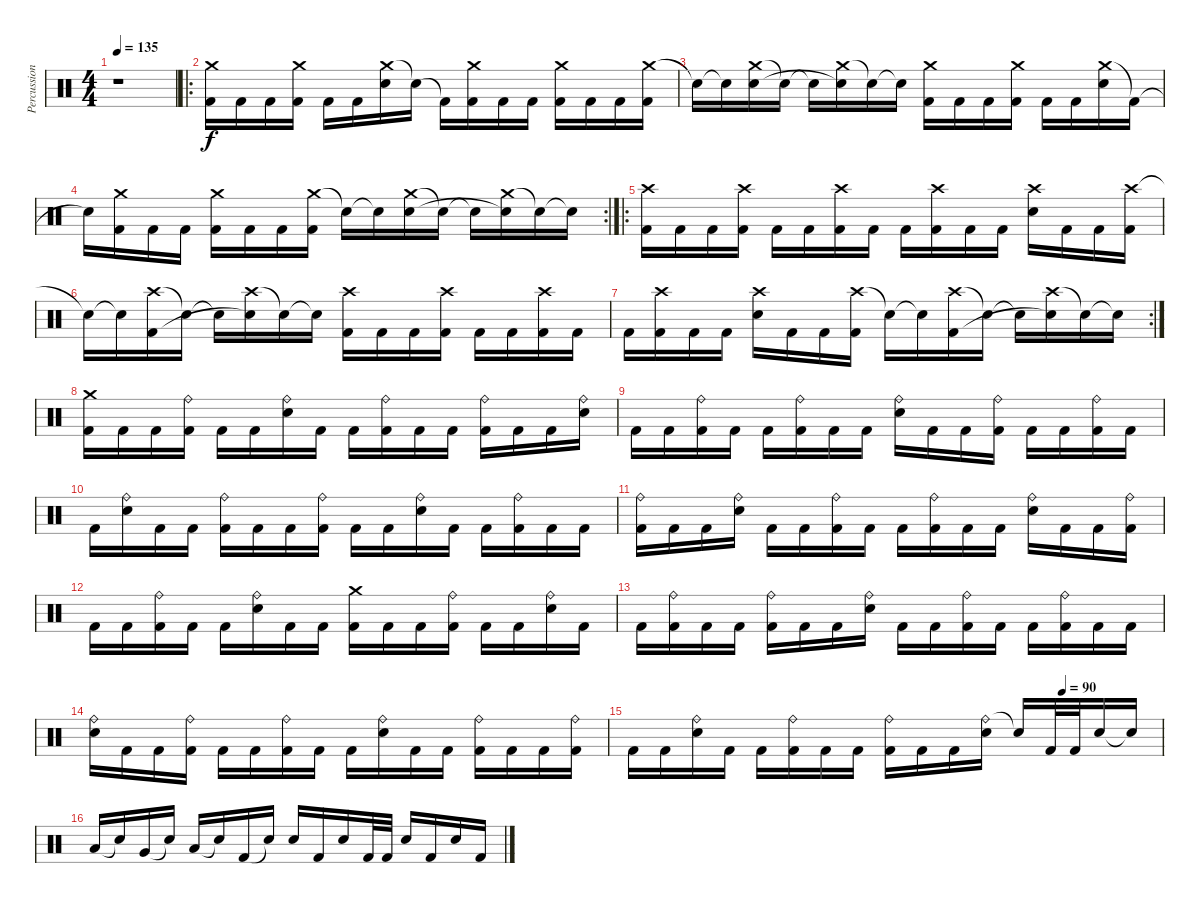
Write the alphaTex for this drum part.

\track ("Percussion" "Percussion") {instrument percussion}
\staff {score}
\articulation defaults
\ts (4 4)
\tempo 135
\clef neutral
\ks c
r.1{dy f} |
\ro
("Crash medium (hit)" "Kick (hit) 2").16 "Kick (hit) 2".16 "Kick (hit) 2".16 ("Crash medium (hit)" "Kick (hit) 2").16 "Kick (hit) 2".16 "Kick (hit) 2".16 ("Crash medium (hit)" "Electric Snare (hit)").16 "Snare (hit)"{t}.16 "Kick (hit) 2"{t}.16 ("Crash medium (hit)" "Kick (hit) 2").16 "Kick (hit) 2".16 "Kick (hit) 2".16 ("Crash medium (hit)" "Kick (hit) 2").16 "Kick (hit) 2".16 "Kick (hit) 2".16 ("Crash medium (hit)" "Kick (hit) 2").16 |
"Electric Snare (hit)"{t}.16 "Electric Snare (hit)"{t}.16 ("Crash medium (hit)" "Electric Snare (hit)").16 "Snare (hit)"{t}.16 "Snare (hit)"{t}.16 ("Crash medium (hit)" "Snare (hit)"{t}).16 "Snare (hit)"{t}.16 "Snare (hit)"{t}.16 ("Crash medium (hit)" "Kick (hit) 2").16 "Kick (hit) 2".16 "Kick (hit) 2".16 ("Crash medium (hit)" "Kick (hit) 2").16 "Kick (hit) 2".16 "Kick (hit) 2".16 ("Crash medium (hit)" "Electric Snare (hit)").16 "Kick (hit) 2"{t}.16 |
\rc 2 "Snare (hit)"{t}.16
("Crash medium (hit)" "Kick (hit) 2").16 "Kick (hit) 2".16 "Kick (hit) 2".16 ("Crash medium (hit)" "Kick (hit) 2").16 "Kick (hit) 2".16 "Kick (hit) 2".16 ("Crash medium (hit)" "Kick (hit) 2").16 "Snare (hit)"{t}.16 "Snare (hit)"{t}.16 ("Crash medium (hit)" "Electric Snare (hit)").16 "Snare (hit)"{t}.16 "Snare (hit)"{t}.16 ("Crash medium (hit)" "Snare (hit)"{t}).16 "Snare (hit)"{t}.16 "Snare (hit)"{t}.16 |
\ro
("Crash high (hit)" "Kick (hit) 2").16 "Kick (hit) 2".16 "Kick (hit) 2".16 ("Crash high (hit)" "Kick (hit) 2").16 "Kick (hit) 2".16 "Kick (hit) 2".16 ("Crash high (hit)" "Kick (hit) 2").16 "Kick (hit) 2".16 "Kick (hit) 2".16 ("Crash high (hit)" "Kick (hit) 2").16 "Kick (hit) 2".16 "Kick (hit) 2".16 ("Crash high (hit)" "Electric Snare (hit)").16 "Kick (hit) 2".16 "Kick (hit) 2".16 ("Crash high (hit)" "Kick (hit) 2").16 |
"Electric Snare (hit)"{t}.16 "Electric Snare (hit)"{t}.16 ("Crash high (hit)" "Kick (hit) 2").16 "Snare (hit)"{t}.16 "Snare (hit)"{t}.16 ("Crash high (hit)" "Snare (hit)"{t}).16 "Snare (hit)"{t}.16 "Snare (hit)"{t}.16 ("Crash high (hit)" "Kick (hit) 2").16 "Kick (hit) 2".16 "Kick (hit) 2".16 ("Crash high (hit)" "Kick (hit) 2").16 "Kick (hit) 2".16 "Kick (hit) 2".16 ("Crash high (hit)" "Kick (hit) 2").16 "Kick (hit) 2".16 |
\rc 2 "Kick (hit) 2".16
("Crash high (hit)" "Kick (hit) 2").16 "Kick (hit) 2".16 "Kick (hit) 2".16 ("Crash high (hit)" "Electric Snare (hit)").16 "Kick (hit) 2".16 "Kick (hit) 2".16 ("Crash high (hit)" "Kick (hit) 2").16 "Snare (hit)"{t}.16 "Snare (hit)"{t}.16 ("Crash high (hit)" "Kick (hit) 2").16 "Snare (hit)"{t}.16 "Snare (hit)"{t}.16 ("Crash high (hit)" "Snare (hit)"{t}).16 "Snare (hit)"{t}.16 "Snare (hit)"{t}.16 |
("Crash medium (hit)" "Kick (hit) 2").16 "Kick (hit) 2".16 "Kick (hit) 2".16 ("Ride (bell)" "Kick (hit) 2").16 "Kick (hit) 2".16 "Kick (hit) 2".16 ("Ride (bell)" "Electric Snare (hit)").16 "Kick (hit) 2".16 "Kick (hit) 2".16 ("Ride (bell)" "Kick (hit) 2").16 "Kick (hit) 2".16 "Kick (hit) 2".16 ("Ride (bell)" "Kick (hit) 2").16 "Kick (hit) 2".16 "Kick (hit) 2".16 ("Ride (bell)" "Electric Snare (hit)").16 |
"Kick (hit) 2".16 "Kick (hit) 2".16 ("Ride (bell)" "Kick (hit) 2").16 "Kick (hit) 2".16 "Kick (hit) 2".16 ("Ride (bell)" "Kick (hit) 2").16 "Kick (hit) 2".16 "Kick (hit) 2".16 ("Ride (bell)" "Electric Snare (hit)").16 "Kick (hit) 2".16 "Kick (hit) 2".16 ("Ride (bell)" "Kick (hit) 2").16 "Kick (hit) 2".16 "Kick (hit) 2".16 ("Ride (bell)" "Kick (hit) 2").16 "Kick (hit) 2".16 |
"Kick (hit) 2".16 ("Ride (bell)" "Electric Snare (hit)").16 "Kick (hit) 2".16 "Kick (hit) 2".16 ("Ride (bell)" "Kick (hit) 2").16 "Kick (hit) 2".16 "Kick (hit) 2".16 ("Ride (bell)" "Kick (hit) 2").16 "Kick (hit) 2".16 "Kick (hit) 2".16 ("Ride (bell)" "Electric Snare (hit)").16 "Kick (hit) 2".16 "Kick (hit) 2".16 ("Ride (bell)" "Kick (hit) 2").16 "Kick (hit) 2".16 "Kick (hit) 2".16 |
("Ride (bell)" "Kick (hit) 2").16 "Kick (hit) 2".16 "Kick (hit) 2".16 ("Ride (bell)" "Electric Snare (hit)").16 "Kick (hit) 2".16 "Kick (hit) 2".16 ("Ride (bell)" "Kick (hit) 2").16 "Kick (hit) 2".16 "Kick (hit) 2".16 ("Ride (bell)" "Kick (hit) 2").16 "Kick (hit) 2".16 "Kick (hit) 2".16 ("Ride (bell)" "Electric Snare (hit)").16 "Kick (hit) 2".16 "Kick (hit) 2".16 ("Ride (bell)" "Kick (hit) 2").16 |
"Kick (hit) 2".16 "Kick (hit) 2".16 ("Ride (bell)" "Kick (hit) 2").16 "Kick (hit) 2".16 "Kick (hit) 2".16 ("Ride (bell)" "Electric Snare (hit)").16 "Kick (hit) 2".16 "Kick (hit) 2".16 ("Crash medium (hit)" "Kick (hit) 2").16 "Kick (hit) 2".16 "Kick (hit) 2".16 ("Ride (bell)" "Kick (hit) 2").16 "Kick (hit) 2".16 "Kick (hit) 2".16 ("Ride (bell)" "Electric Snare (hit)").16 "Kick (hit) 2".16 |
"Kick (hit) 2".16 ("Ride (bell)" "Kick (hit) 2").16 "Kick (hit) 2".16 "Kick (hit) 2".16 ("Ride (bell)" "Kick (hit) 2").16 "Kick (hit) 2".16 "Kick (hit) 2".16 ("Ride (bell)" "Electric Snare (hit)").16 "Kick (hit) 2".16 "Kick (hit) 2".16 ("Ride (bell)" "Kick (hit) 2").16 "Kick (hit) 2".16 "Kick (hit) 2".16 ("Ride (bell)" "Kick (hit) 2").16 "Kick (hit) 2".16 "Kick (hit) 2".16 |
("Ride (bell)" "Electric Snare (hit)").16 "Kick (hit) 2".16 "Kick (hit) 2".16 ("Ride (bell)" "Kick (hit) 2").16 "Kick (hit) 2".16 "Kick (hit) 2".16 ("Ride (bell)" "Kick (hit) 2").16 "Kick (hit) 2".16 "Kick (hit) 2".16 ("Ride (bell)" "Electric Snare (hit)").16 "Kick (hit) 2".16 "Kick (hit) 2".16 ("Ride (bell)" "Kick (hit) 2").16 "Kick (hit) 2".16 "Kick (hit) 2".16 ("Ride (bell)" "Kick (hit) 2").16 |
\tempo (90 0.8125)
"Kick (hit) 2".16 "Kick (hit) 2".16 ("Ride (bell)" "Electric Snare (hit)").16 "Kick (hit) 2".16 "Kick (hit) 2".16 ("Ride (bell)" "Kick (hit) 2").16 "Kick (hit) 2".16 "Kick (hit) 2".16 ("Ride (bell)" "Kick (hit) 2").16 "Kick (hit) 2".16 "Kick (hit) 2".16 ("Ride (bell)" "Electric Snare (hit)").16 "Snare (hit)"{t}.16 "Kick (hit) 2".32 "Kick (hit) 2".32 "Electric Snare (hit)".16 "Snare (hit)"{t}.16 |
"Low Tom (hit)".16 "Snare (hit)"{t}.16 "Very Low Tom (hit)".16 "Snare (hit)"{t}.16 "Low Floor Tom (hit)".16 "Snare (hit)"{t}.16 "Kick (hit) 2".16 "Electric Snare (hit)"{t}.16 "Electric Snare (hit)".16 "Kick (hit) 2".16 "Electric Snare (hit)".16 "Kick (hit) 2".32 "Kick (hit) 2".32 "Electric Snare (hit)".16 "Kick (hit) 2".16 "Electric Snare (hit)".16 "Kick (hit) 2".16
